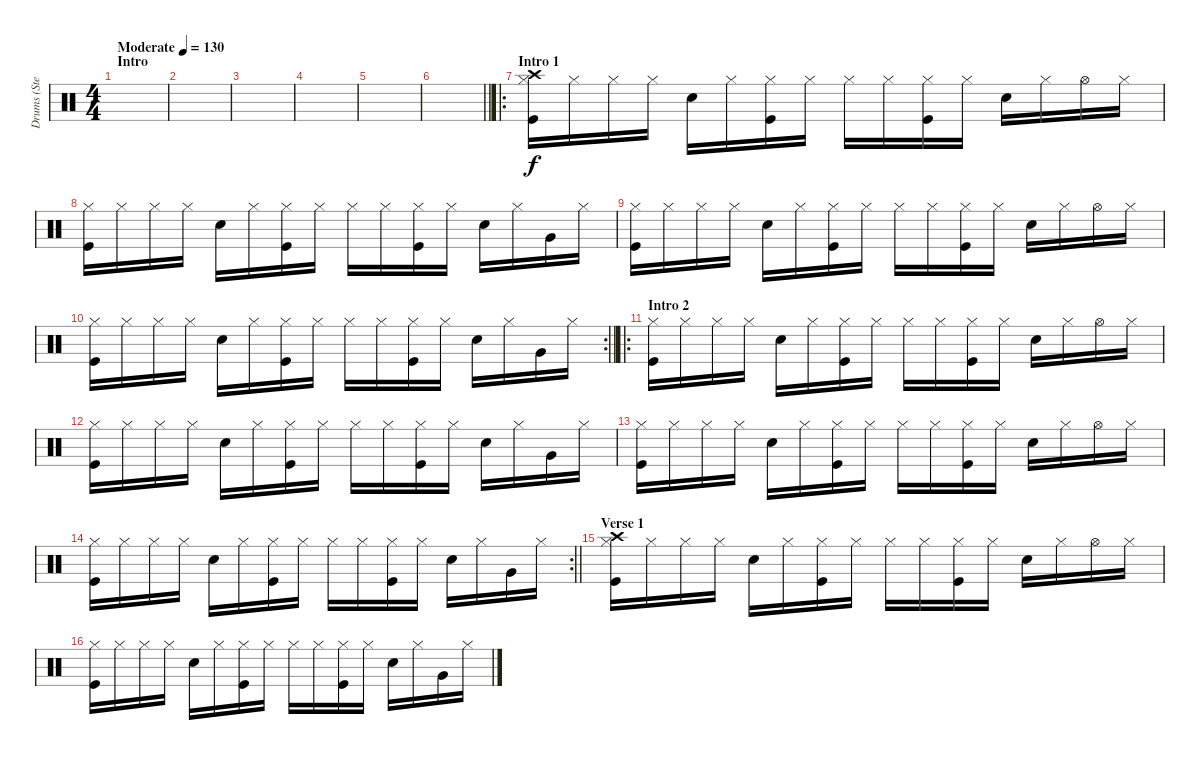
\track ("Drums (Stephen Morris)" "Drums (Ste") {instrument percussion}
\staff {score}
\articulation defaults
\ts (4 4)
\section ("" "Intro")
\tempo (130 "Moderate")
\clef neutral
\ks c
|
|
|
|
|
\barLineRight lightlight
|
\ro
\section ("" "Intro 1")
("Hi-Hat (closed)" "Crash high (hit)" "Kick (hit)").16 "Hi-Hat (closed)".16 "Hi-Hat (closed)".16 "Hi-Hat (closed)".16 "Snare (hit) 2".16 "Hi-Hat (closed)".16 ("Kick (hit)" "Hi-Hat (closed)").16 "Hi-Hat (closed)".16 "Hi-Hat (closed)".16 "Hi-Hat (closed)".16 ("Kick (hit)" "Hi-Hat (closed)").16 "Hi-Hat (closed)".16 "Snare (hit) 2".16 "Hi-Hat (closed)".16 "Hi-Hat (open)".16 "Hi-Hat (closed)".16 |
("Hi-Hat (closed)" "Kick (hit)").16 "Hi-Hat (closed)".16 "Hi-Hat (closed)".16 "Hi-Hat (closed)".16 "Snare (hit) 2".16 "Hi-Hat (closed)".16 ("Hi-Hat (closed)" "Kick (hit)").16 "Hi-Hat (closed)".16 "Hi-Hat (closed)".16 "Hi-Hat (closed)".16 ("Hi-Hat (closed)" "Kick (hit)").16 "Hi-Hat (closed)".16 "Snare (hit) 2".16 "Hi-Hat (closed)".16 "Very Low Tom (hit)".16 "Hi-Hat (closed)".16 |
("Kick (hit)" "Hi-Hat (closed)").16 "Hi-Hat (closed)".16 "Hi-Hat (closed)".16 "Hi-Hat (closed)".16 "Snare (hit) 2".16 "Hi-Hat (closed)".16 ("Hi-Hat (closed)" "Kick (hit)").16 "Hi-Hat (closed)".16 "Hi-Hat (closed)".16 "Hi-Hat (closed)".16 ("Hi-Hat (closed)" "Kick (hit)").16 "Hi-Hat (closed)".16 "Snare (hit) 2".16 "Hi-Hat (closed)".16 "Hi-Hat (open)".16 "Hi-Hat (closed)".16 |
\rc 2
\barLineRight lightlight
("Hi-Hat (closed)" "Kick (hit)").16 "Hi-Hat (closed)".16 "Hi-Hat (closed)".16 "Hi-Hat (closed)".16 "Snare (hit) 2".16 "Hi-Hat (closed)".16 ("Hi-Hat (closed)" "Kick (hit)").16 "Hi-Hat (closed)".16 "Hi-Hat (closed)".16 "Hi-Hat (closed)".16 ("Kick (hit)" "Hi-Hat (closed)").16 "Hi-Hat (closed)".16 "Snare (hit) 2".16 "Hi-Hat (closed)".16 "Very Low Tom (hit)".16 "Hi-Hat (closed)".16 |
\ro
\section ("" "Intro 2")
("Hi-Hat (closed)" "Kick (hit)").16 "Hi-Hat (closed)".16 "Hi-Hat (closed)".16 "Hi-Hat (closed)".16 "Snare (hit) 2".16 "Hi-Hat (closed)".16 ("Kick (hit)" "Hi-Hat (closed)").16 "Hi-Hat (closed)".16 "Hi-Hat (closed)".16 "Hi-Hat (closed)".16 ("Kick (hit)" "Hi-Hat (closed)").16 "Hi-Hat (closed)".16 "Snare (hit) 2".16 "Hi-Hat (closed)".16 "Hi-Hat (open)".16 "Hi-Hat (closed)".16 |
("Hi-Hat (closed)" "Kick (hit)").16 "Hi-Hat (closed)".16 "Hi-Hat (closed)".16 "Hi-Hat (closed)".16 "Snare (hit) 2".16 "Hi-Hat (closed)".16 ("Kick (hit)" "Hi-Hat (closed)").16 "Hi-Hat (closed)".16 "Hi-Hat (closed)".16 "Hi-Hat (closed)".16 ("Kick (hit)" "Hi-Hat (closed)").16 "Hi-Hat (closed)".16 "Snare (hit) 2".16 "Hi-Hat (closed)".16 "Very Low Tom (hit)".16 "Hi-Hat (closed)".16 |
("Hi-Hat (closed)" "Kick (hit)").16 "Hi-Hat (closed)".16 "Hi-Hat (closed)".16 "Hi-Hat (closed)".16 "Snare (hit) 2".16 "Hi-Hat (closed)".16 ("Hi-Hat (closed)" "Kick (hit)").16 "Hi-Hat (closed)".16 "Hi-Hat (closed)".16 "Hi-Hat (closed)".16 ("Kick (hit)" "Hi-Hat (closed)").16 "Hi-Hat (closed)".16 "Snare (hit) 2".16 "Hi-Hat (closed)".16 "Hi-Hat (open)".16 "Hi-Hat (closed)".16 |
\rc 2
\barLineRight lightlight
("Kick (hit)" "Hi-Hat (closed)").16 "Hi-Hat (closed)".16 "Hi-Hat (closed)".16 "Hi-Hat (closed)".16 "Snare (hit) 2".16 "Hi-Hat (closed)".16 ("Hi-Hat (closed)" "Kick (hit)").16 "Hi-Hat (closed)".16 "Hi-Hat (closed)".16 "Hi-Hat (closed)".16 ("Hi-Hat (closed)" "Kick (hit)").16 "Hi-Hat (closed)".16 "Snare (hit) 2".16 "Hi-Hat (closed)".16 "Very Low Tom (hit)".16 "Hi-Hat (closed)".16 |
\section ("" "Verse 1")
("Crash high (hit)" "Hi-Hat (closed)" "Kick (hit)").16 "Hi-Hat (closed)".16 "Hi-Hat (closed)".16 "Hi-Hat (closed)".16 "Snare (hit) 2".16 "Hi-Hat (closed)".16 ("Kick (hit)" "Hi-Hat (closed)").16 "Hi-Hat (closed)".16 "Hi-Hat (closed)".16 "Hi-Hat (closed)".16 ("Kick (hit)" "Hi-Hat (closed)").16 "Hi-Hat (closed)".16 "Snare (hit) 2".16 "Hi-Hat (closed)".16 "Hi-Hat (open)".16 "Hi-Hat (closed)".16 |
("Kick (hit)" "Hi-Hat (closed)").16 "Hi-Hat (closed)".16 "Hi-Hat (closed)".16 "Hi-Hat (closed)".16 "Snare (hit) 2".16 "Hi-Hat (closed)".16 ("Hi-Hat (closed)" "Kick (hit)").16 "Hi-Hat (closed)".16 "Hi-Hat (closed)".16 "Hi-Hat (closed)".16 ("Hi-Hat (closed)" "Kick (hit)").16 "Hi-Hat (closed)".16 "Snare (hit) 2".16 "Hi-Hat (closed)".16 "Very Low Tom (hit)".16 "Hi-Hat (closed)".16
